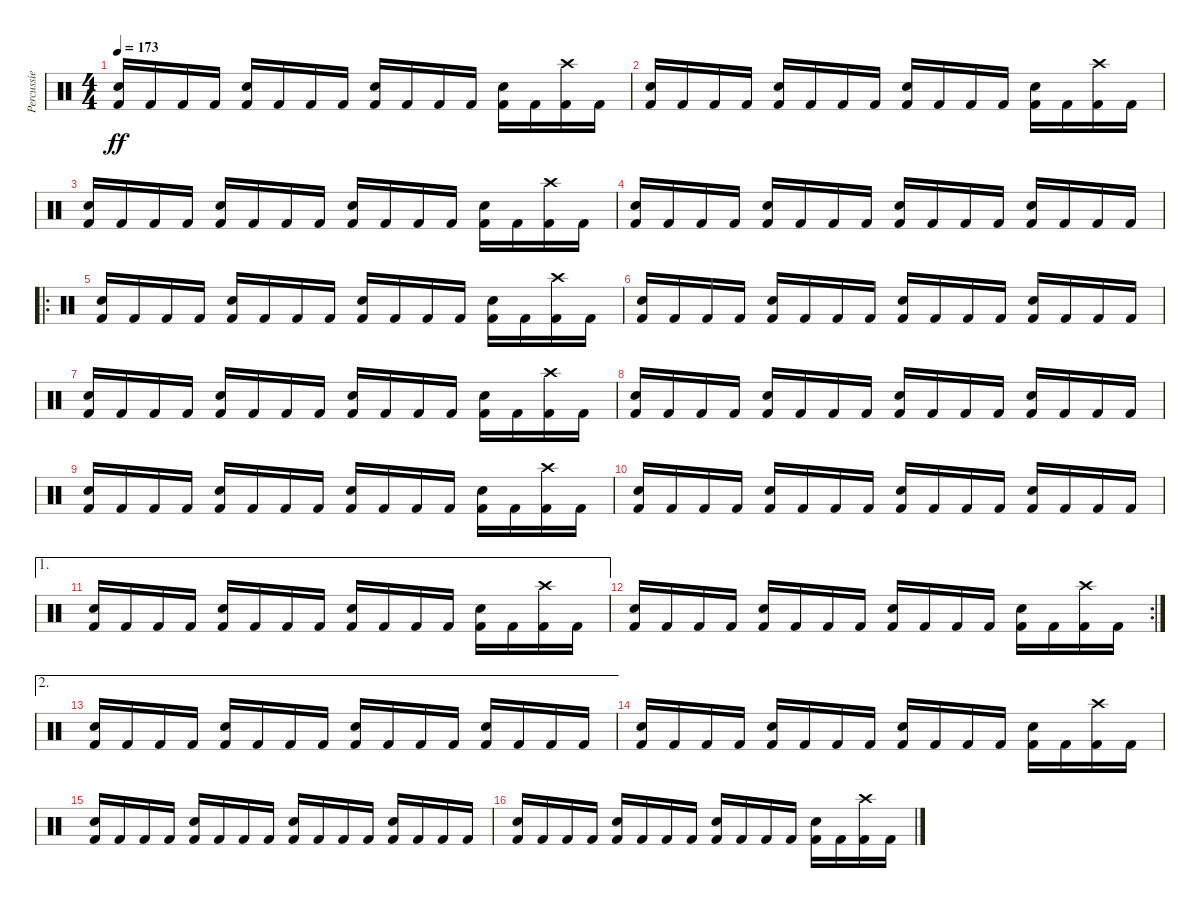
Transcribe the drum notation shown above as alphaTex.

\track ("Percussie" "Percussie") {instrument percussion}
\staff {score}
\articulation defaults
\ts (4 4)
\tempo 173
\clef neutral
\ks c
("Kick (hit) 2" "Snare (hit) 2").16{dy ff} "Kick (hit) 2".16 "Kick (hit) 2".16 "Kick (hit) 2".16 ("Kick (hit) 2" "Snare (hit) 2").16 "Kick (hit) 2".16 "Kick (hit) 2".16 "Kick (hit) 2".16 ("Kick (hit) 2" "Snare (hit) 2").16 "Kick (hit) 2".16 "Kick (hit) 2".16 "Kick (hit) 2".16 ("Kick (hit) 2" "Snare (hit) 2").16 "Kick (hit) 2".16 ("Kick (hit) 2" "Crash high (hit)").16 "Kick (hit) 2".16 |
("Kick (hit) 2" "Snare (hit) 2").16 "Kick (hit) 2".16 "Kick (hit) 2".16 "Kick (hit) 2".16 ("Kick (hit) 2" "Snare (hit) 2").16 "Kick (hit) 2".16 "Kick (hit) 2".16 "Kick (hit) 2".16 ("Kick (hit) 2" "Snare (hit) 2").16 "Kick (hit) 2".16 "Kick (hit) 2".16 "Kick (hit) 2".16 ("Kick (hit) 2" "Snare (hit) 2").16 "Kick (hit) 2".16 ("Kick (hit) 2" "Crash high (hit)").16 "Kick (hit) 2".16 |
("Kick (hit) 2" "Snare (hit) 2").16 "Kick (hit) 2".16 "Kick (hit) 2".16 "Kick (hit) 2".16 ("Kick (hit) 2" "Snare (hit) 2").16 "Kick (hit) 2".16 "Kick (hit) 2".16 "Kick (hit) 2".16 ("Kick (hit) 2" "Snare (hit) 2").16 "Kick (hit) 2".16 "Kick (hit) 2".16 "Kick (hit) 2".16 ("Kick (hit) 2" "Snare (hit) 2").16 "Kick (hit) 2".16 ("Kick (hit) 2" "Crash high (hit)").16 "Kick (hit) 2".16 |
("Kick (hit) 2" "Snare (hit) 2").16 "Kick (hit) 2".16 "Kick (hit) 2".16 "Kick (hit) 2".16 ("Kick (hit) 2" "Snare (hit) 2").16 "Kick (hit) 2".16 "Kick (hit) 2".16 "Kick (hit) 2".16 ("Kick (hit) 2" "Snare (hit) 2").16 "Kick (hit) 2".16 "Kick (hit) 2".16 "Kick (hit) 2".16 ("Kick (hit) 2" "Snare (hit) 2").16 "Kick (hit) 2".16 "Kick (hit) 2".16 "Kick (hit) 2".16 |
\ro
("Kick (hit) 2" "Snare (hit) 2").16 "Kick (hit) 2".16 "Kick (hit) 2".16 "Kick (hit) 2".16 ("Kick (hit) 2" "Snare (hit) 2").16 "Kick (hit) 2".16 "Kick (hit) 2".16 "Kick (hit) 2".16 ("Kick (hit) 2" "Snare (hit) 2").16 "Kick (hit) 2".16 "Kick (hit) 2".16 "Kick (hit) 2".16 ("Kick (hit) 2" "Snare (hit) 2").16 "Kick (hit) 2".16 ("Kick (hit) 2" "Crash high (hit)").16 "Kick (hit) 2".16 |
("Kick (hit) 2" "Snare (hit) 2").16 "Kick (hit) 2".16 "Kick (hit) 2".16 "Kick (hit) 2".16 ("Kick (hit) 2" "Snare (hit) 2").16 "Kick (hit) 2".16 "Kick (hit) 2".16 "Kick (hit) 2".16 ("Kick (hit) 2" "Snare (hit) 2").16 "Kick (hit) 2".16 "Kick (hit) 2".16 "Kick (hit) 2".16 ("Kick (hit) 2" "Snare (hit) 2").16 "Kick (hit) 2".16 "Kick (hit) 2".16 "Kick (hit) 2".16 |
("Kick (hit) 2" "Snare (hit) 2").16 "Kick (hit) 2".16 "Kick (hit) 2".16 "Kick (hit) 2".16 ("Kick (hit) 2" "Snare (hit) 2").16 "Kick (hit) 2".16 "Kick (hit) 2".16 "Kick (hit) 2".16 ("Kick (hit) 2" "Snare (hit) 2").16 "Kick (hit) 2".16 "Kick (hit) 2".16 "Kick (hit) 2".16 ("Kick (hit) 2" "Snare (hit) 2").16 "Kick (hit) 2".16 ("Kick (hit) 2" "Crash high (hit)").16 "Kick (hit) 2".16 |
("Kick (hit) 2" "Snare (hit) 2").16 "Kick (hit) 2".16 "Kick (hit) 2".16 "Kick (hit) 2".16 ("Kick (hit) 2" "Snare (hit) 2").16 "Kick (hit) 2".16 "Kick (hit) 2".16 "Kick (hit) 2".16 ("Kick (hit) 2" "Snare (hit) 2").16 "Kick (hit) 2".16 "Kick (hit) 2".16 "Kick (hit) 2".16 ("Kick (hit) 2" "Snare (hit) 2").16 "Kick (hit) 2".16 "Kick (hit) 2".16 "Kick (hit) 2".16 |
("Kick (hit) 2" "Snare (hit) 2").16 "Kick (hit) 2".16 "Kick (hit) 2".16 "Kick (hit) 2".16 ("Kick (hit) 2" "Snare (hit) 2").16 "Kick (hit) 2".16 "Kick (hit) 2".16 "Kick (hit) 2".16 ("Kick (hit) 2" "Snare (hit) 2").16 "Kick (hit) 2".16 "Kick (hit) 2".16 "Kick (hit) 2".16 ("Kick (hit) 2" "Snare (hit) 2").16 "Kick (hit) 2".16 ("Kick (hit) 2" "Crash high (hit)").16 "Kick (hit) 2".16 |
("Kick (hit) 2" "Snare (hit) 2").16 "Kick (hit) 2".16 "Kick (hit) 2".16 "Kick (hit) 2".16 ("Kick (hit) 2" "Snare (hit) 2").16 "Kick (hit) 2".16 "Kick (hit) 2".16 "Kick (hit) 2".16 ("Kick (hit) 2" "Snare (hit) 2").16 "Kick (hit) 2".16 "Kick (hit) 2".16 "Kick (hit) 2".16 ("Kick (hit) 2" "Snare (hit) 2").16 "Kick (hit) 2".16 "Kick (hit) 2".16 "Kick (hit) 2".16 |
\ae 1
("Kick (hit) 2" "Snare (hit) 2").16 "Kick (hit) 2".16 "Kick (hit) 2".16 "Kick (hit) 2".16 ("Kick (hit) 2" "Snare (hit) 2").16 "Kick (hit) 2".16 "Kick (hit) 2".16 "Kick (hit) 2".16 ("Kick (hit) 2" "Snare (hit) 2").16 "Kick (hit) 2".16 "Kick (hit) 2".16 "Kick (hit) 2".16 ("Kick (hit) 2" "Snare (hit) 2").16 "Kick (hit) 2".16 ("Kick (hit) 2" "Crash high (hit)").16 "Kick (hit) 2".16 |
\rc 2
("Kick (hit) 2" "Snare (hit) 2").16 "Kick (hit) 2".16 "Kick (hit) 2".16 "Kick (hit) 2".16 ("Kick (hit) 2" "Snare (hit) 2").16 "Kick (hit) 2".16 "Kick (hit) 2".16 "Kick (hit) 2".16 ("Kick (hit) 2" "Snare (hit) 2").16 "Kick (hit) 2".16 "Kick (hit) 2".16 "Kick (hit) 2".16 ("Kick (hit) 2" "Snare (hit) 2").16 "Kick (hit) 2".16 ("Kick (hit) 2" "Crash high (hit)").16 "Kick (hit) 2".16 |
\ae 2
("Kick (hit) 2" "Snare (hit) 2").16 "Kick (hit) 2".16 "Kick (hit) 2".16 "Kick (hit) 2".16 ("Kick (hit) 2" "Snare (hit) 2").16 "Kick (hit) 2".16 "Kick (hit) 2".16 "Kick (hit) 2".16 ("Kick (hit) 2" "Snare (hit) 2").16 "Kick (hit) 2".16 "Kick (hit) 2".16 "Kick (hit) 2".16 ("Kick (hit) 2" "Snare (hit) 2").16 "Kick (hit) 2".16 "Kick (hit) 2".16 "Kick (hit) 2".16 |
("Kick (hit) 2" "Snare (hit) 2").16 "Kick (hit) 2".16 "Kick (hit) 2".16 "Kick (hit) 2".16 ("Kick (hit) 2" "Snare (hit) 2").16 "Kick (hit) 2".16 "Kick (hit) 2".16 "Kick (hit) 2".16 ("Kick (hit) 2" "Snare (hit) 2").16 "Kick (hit) 2".16 "Kick (hit) 2".16 "Kick (hit) 2".16 ("Kick (hit) 2" "Snare (hit) 2").16 "Kick (hit) 2".16 ("Kick (hit) 2" "Crash high (hit)").16 "Kick (hit) 2".16 |
("Kick (hit) 2" "Snare (hit) 2").16 "Kick (hit) 2".16 "Kick (hit) 2".16 "Kick (hit) 2".16 ("Kick (hit) 2" "Snare (hit) 2").16 "Kick (hit) 2".16 "Kick (hit) 2".16 "Kick (hit) 2".16 ("Kick (hit) 2" "Snare (hit) 2").16 "Kick (hit) 2".16 "Kick (hit) 2".16 "Kick (hit) 2".16 ("Kick (hit) 2" "Snare (hit) 2").16 "Kick (hit) 2".16 "Kick (hit) 2".16 "Kick (hit) 2".16 |
("Kick (hit) 2" "Snare (hit) 2").16 "Kick (hit) 2".16 "Kick (hit) 2".16 "Kick (hit) 2".16 ("Kick (hit) 2" "Snare (hit) 2").16 "Kick (hit) 2".16 "Kick (hit) 2".16 "Kick (hit) 2".16 ("Kick (hit) 2" "Snare (hit) 2").16 "Kick (hit) 2".16 "Kick (hit) 2".16 "Kick (hit) 2".16 ("Kick (hit) 2" "Snare (hit) 2").16 "Kick (hit) 2".16 ("Kick (hit) 2" "Crash high (hit)").16 "Kick (hit) 2".16
